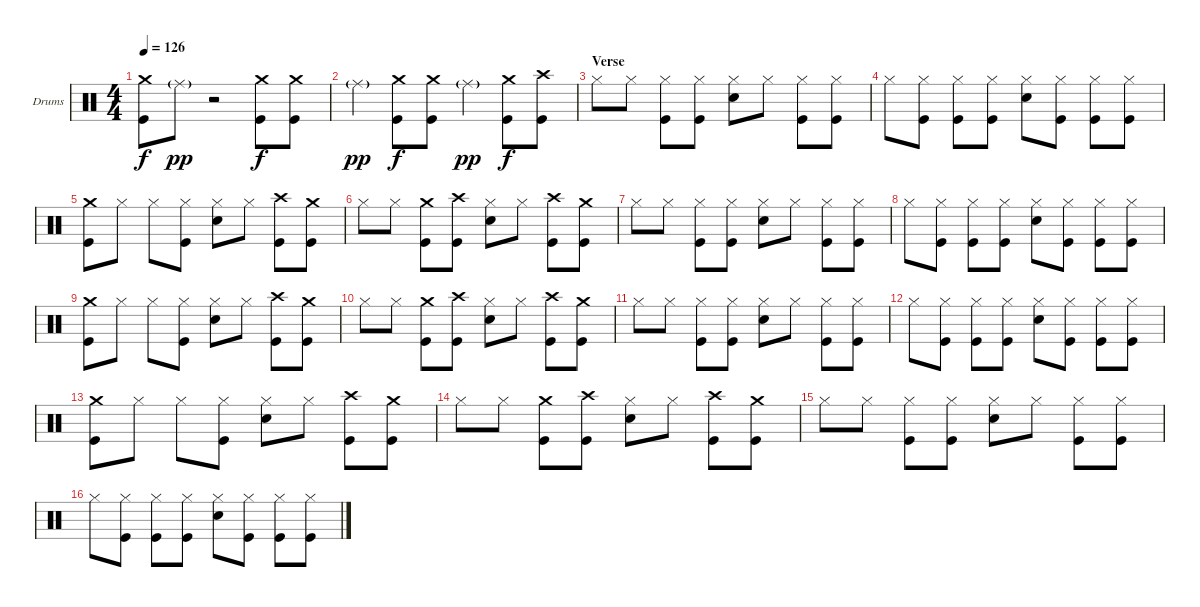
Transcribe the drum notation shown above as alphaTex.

\bracketExtendMode groupsimilarinstruments
\firstSystemTrackNameOrientation horizontal
\otherSystemsTrackNameOrientation horizontal
\track ("Drumkit" "Drums") {instrument percussion}
\staff {score}
\articulation defaults
\ts (4 4)
\tempo 126
\clef neutral
\ks c
("Crash medium (hit)" "Kick (hit)").8{dy f} "Ride (middle)"{g}.8{dy pp} r.2 ("Crash medium (hit)" "Kick (hit)").8{dy f} ("Crash medium (hit)" "Kick (hit)").8 |
"Ride (middle)"{g}.4{dy pp} ("Crash medium (hit)" "Kick (hit)").8{dy f} ("Crash medium (hit)" "Kick (hit)").8 "Ride (middle)"{g}.4{dy pp} ("Crash medium (hit)" "Kick (hit)").8{dy f} ("Crash high (hit)" "Kick (hit)").8 |
\section ("" "Verse")
"Hi-Hat (closed)".8 "Hi-Hat (closed)".8 ("Hi-Hat (closed)" "Kick (hit)").8 ("Hi-Hat (closed)" "Kick (hit)").8 ("Hi-Hat (closed)" "Snare (hit) 2").8 "Hi-Hat (closed)".8 ("Hi-Hat (closed)" "Kick (hit)").8 ("Hi-Hat (closed)" "Kick (hit)").8 |
"Hi-Hat (closed)".8 ("Hi-Hat (closed)" "Kick (hit)").8 ("Hi-Hat (closed)" "Kick (hit)").8 ("Hi-Hat (closed)" "Kick (hit)").8 ("Hi-Hat (closed)" "Snare (hit) 2").8 ("Hi-Hat (closed)" "Kick (hit)").8 ("Hi-Hat (closed)" "Kick (hit)").8 ("Hi-Hat (closed)" "Kick (hit)").8 |
("Crash medium (hit)" "Kick (hit)").8 "Hi-Hat (closed)".8 "Hi-Hat (closed)".8 ("Hi-Hat (closed)" "Kick (hit)").8 ("Hi-Hat (closed)" "Snare (hit) 2").8 "Hi-Hat (closed)".8 ("Crash high (hit)" "Kick (hit)").8 ("Crash medium (hit)" "Kick (hit)").8 |
"Hi-Hat (closed)".8 "Hi-Hat (closed)".8 ("Crash medium (hit)" "Kick (hit)").8 ("Crash high (hit)" "Kick (hit)").8 ("Hi-Hat (closed)" "Snare (hit) 2").8 "Hi-Hat (closed)".8 ("Crash high (hit)" "Kick (hit)").8 ("Crash medium (hit)" "Kick (hit)").8 |
"Hi-Hat (closed)".8 "Hi-Hat (closed)".8 ("Hi-Hat (closed)" "Kick (hit)").8 ("Hi-Hat (closed)" "Kick (hit)").8 ("Hi-Hat (closed)" "Snare (hit) 2").8 "Hi-Hat (closed)".8 ("Hi-Hat (closed)" "Kick (hit)").8 ("Hi-Hat (closed)" "Kick (hit)").8 |
"Hi-Hat (closed)".8 ("Hi-Hat (closed)" "Kick (hit)").8 ("Hi-Hat (closed)" "Kick (hit)").8 ("Hi-Hat (closed)" "Kick (hit)").8 ("Hi-Hat (closed)" "Snare (hit) 2").8 ("Hi-Hat (closed)" "Kick (hit)").8 ("Hi-Hat (closed)" "Kick (hit)").8 ("Hi-Hat (closed)" "Kick (hit)").8 |
("Crash medium (hit)" "Kick (hit)").8 "Hi-Hat (closed)".8 "Hi-Hat (closed)".8 ("Hi-Hat (closed)" "Kick (hit)").8 ("Hi-Hat (closed)" "Snare (hit) 2").8 "Hi-Hat (closed)".8 ("Crash high (hit)" "Kick (hit)").8 ("Crash medium (hit)" "Kick (hit)").8 |
"Hi-Hat (closed)".8 "Hi-Hat (closed)".8 ("Crash medium (hit)" "Kick (hit)").8 ("Crash high (hit)" "Kick (hit)").8 ("Hi-Hat (closed)" "Snare (hit) 2").8 "Hi-Hat (closed)".8 ("Crash high (hit)" "Kick (hit)").8 ("Crash medium (hit)" "Kick (hit)").8 |
"Hi-Hat (closed)".8 "Hi-Hat (closed)".8 ("Hi-Hat (closed)" "Kick (hit)").8 ("Hi-Hat (closed)" "Kick (hit)").8 ("Hi-Hat (closed)" "Snare (hit) 2").8 "Hi-Hat (closed)".8 ("Hi-Hat (closed)" "Kick (hit)").8 ("Hi-Hat (closed)" "Kick (hit)").8 |
"Hi-Hat (closed)".8 ("Hi-Hat (closed)" "Kick (hit)").8 ("Hi-Hat (closed)" "Kick (hit)").8 ("Hi-Hat (closed)" "Kick (hit)").8 ("Hi-Hat (closed)" "Snare (hit) 2").8 ("Hi-Hat (closed)" "Kick (hit)").8 ("Hi-Hat (closed)" "Kick (hit)").8 ("Hi-Hat (closed)" "Kick (hit)").8 |
("Crash medium (hit)" "Kick (hit)").8 "Hi-Hat (closed)".8 "Hi-Hat (closed)".8 ("Hi-Hat (closed)" "Kick (hit)").8 ("Hi-Hat (closed)" "Snare (hit) 2").8 "Hi-Hat (closed)".8 ("Crash high (hit)" "Kick (hit)").8 ("Crash medium (hit)" "Kick (hit)").8 |
"Hi-Hat (closed)".8 "Hi-Hat (closed)".8 ("Crash medium (hit)" "Kick (hit)").8 ("Crash high (hit)" "Kick (hit)").8 ("Hi-Hat (closed)" "Snare (hit) 2").8 "Hi-Hat (closed)".8 ("Crash high (hit)" "Kick (hit)").8 ("Crash medium (hit)" "Kick (hit)").8 |
"Hi-Hat (closed)".8 "Hi-Hat (closed)".8 ("Hi-Hat (closed)" "Kick (hit)").8 ("Hi-Hat (closed)" "Kick (hit)").8 ("Hi-Hat (closed)" "Snare (hit) 2").8 "Hi-Hat (closed)".8 ("Hi-Hat (closed)" "Kick (hit)").8 ("Hi-Hat (closed)" "Kick (hit)").8 |
"Hi-Hat (closed)".8 ("Hi-Hat (closed)" "Kick (hit)").8 ("Hi-Hat (closed)" "Kick (hit)").8 ("Hi-Hat (closed)" "Kick (hit)").8 ("Hi-Hat (closed)" "Snare (hit) 2").8 ("Hi-Hat (closed)" "Kick (hit)").8 ("Hi-Hat (closed)" "Kick (hit)").8 ("Hi-Hat (closed)" "Kick (hit)").8
